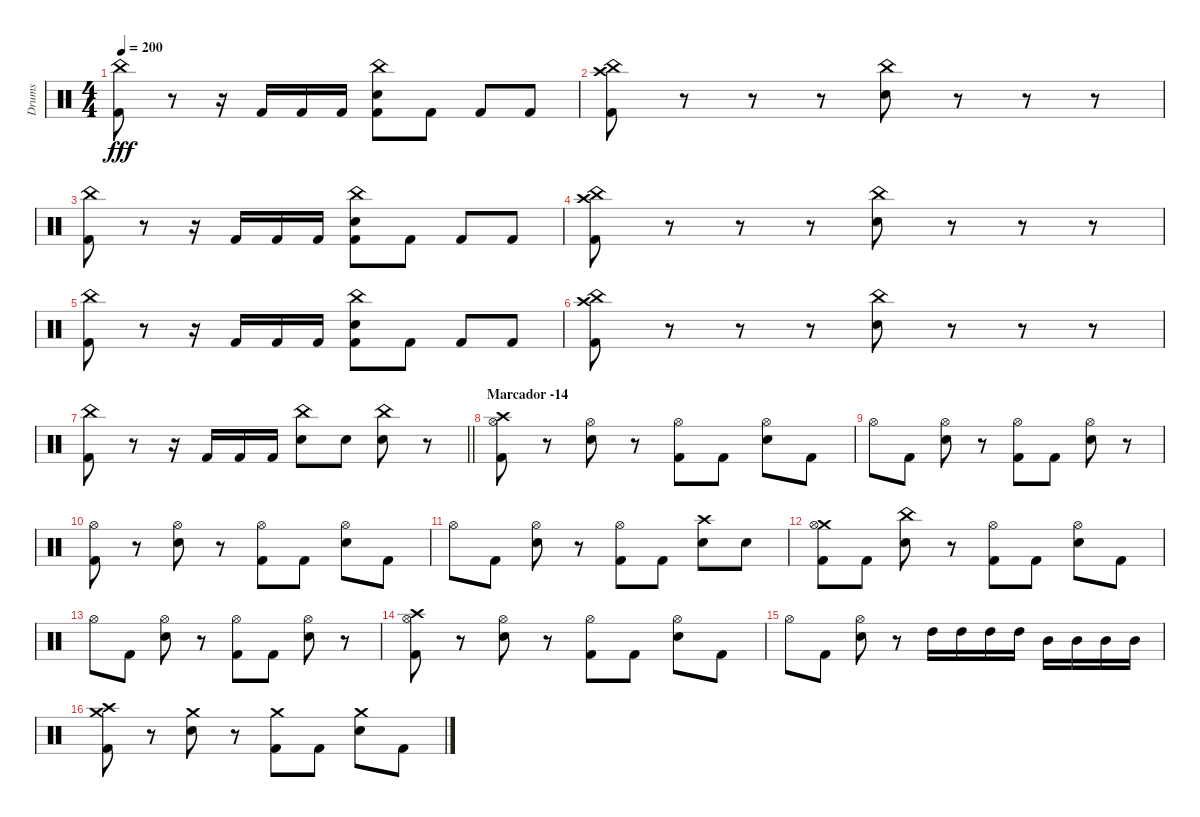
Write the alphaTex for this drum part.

\track ("Drums" "Drums") {instrument percussion}
\staff {score}
\articulation defaults
\ts (4 4)
\tempo 200
\clef neutral
\ks c
("China (hit)" "Kick (hit) 2").8{dy fff} r.8 r.16 "Kick (hit) 2".16 "Kick (hit) 2".16 "Kick (hit) 2".16 ("China (hit)" "Electric Snare (hit)" "Kick (hit) 2").8 "Kick (hit) 2".8 "Kick (hit) 2".8 "Kick (hit) 2".8 |
("China (hit)" "Crash high (hit)" "Kick (hit) 2").8 r.8 r.8 r.8 ("China (hit)" "Electric Snare (hit)").8 r.8 r.8 r.8 |
("China (hit)" "Kick (hit) 2").8 r.8 r.16 "Kick (hit) 2".16 "Kick (hit) 2".16 "Kick (hit) 2".16 ("China (hit)" "Electric Snare (hit)" "Kick (hit) 2").8 "Kick (hit) 2".8 "Kick (hit) 2".8 "Kick (hit) 2".8 |
("China (hit)" "Crash high (hit)" "Kick (hit) 2").8 r.8 r.8 r.8 ("China (hit)" "Electric Snare (hit)").8 r.8 r.8 r.8 |
("China (hit)" "Kick (hit) 2").8 r.8 r.16 "Kick (hit) 2".16 "Kick (hit) 2".16 "Kick (hit) 2".16 ("China (hit)" "Electric Snare (hit)" "Kick (hit) 2").8 "Kick (hit) 2".8 "Kick (hit) 2".8 "Kick (hit) 2".8 |
("China (hit)" "Crash high (hit)" "Kick (hit) 2").8 r.8 r.8 r.8 ("China (hit)" "Electric Snare (hit)").8 r.8 r.8 r.8 |
\barLineRight lightlight
("China (hit)" "Kick (hit) 2").8 r.8 r.16 "Kick (hit) 2".16 "Kick (hit) 2".16 "Kick (hit) 2".16 ("China (hit)" "Electric Snare (hit)").8 "Electric Snare (hit)".8 ("China (hit)" "Electric Snare (hit)").8 r.8 |
\section ("" "Marcador -14")
("Crash high (hit)" "Hi-Hat (open)" "Kick (hit) 2").8 r.8 ("Hi-Hat (open)" "Electric Snare (hit)").8 r.8 ("Hi-Hat (open)" "Kick (hit) 2").8 "Kick (hit) 2".8 ("Hi-Hat (open)" "Electric Snare (hit)").8 "Kick (hit) 2".8 |
"Hi-Hat (open)".8 "Kick (hit) 2".8 ("Hi-Hat (open)" "Electric Snare (hit)").8 r.8 ("Hi-Hat (open)" "Kick (hit) 2").8 "Kick (hit) 2".8 ("Hi-Hat (open)" "Electric Snare (hit)").8 r.8 |
("Hi-Hat (open)" "Kick (hit) 2").8 r.8 ("Hi-Hat (open)" "Electric Snare (hit)").8 r.8 ("Hi-Hat (open)" "Kick (hit) 2").8 "Kick (hit) 2".8 ("Hi-Hat (open)" "Electric Snare (hit)").8 "Kick (hit) 2".8 |
"Hi-Hat (open)".8 "Kick (hit) 2".8 ("Hi-Hat (open)" "Electric Snare (hit)").8 r.8 ("Hi-Hat (open)" "Kick (hit) 2").8 "Kick (hit) 2".8 ("Crash high (hit)" "Electric Snare (hit)").8 "Electric Snare (hit)".8 |
("Crash medium (hit)" "Hi-Hat (open)" "Kick (hit) 2").8 "Kick (hit) 2".8 ("China (hit)" "Electric Snare (hit)").8 r.8 ("Hi-Hat (open)" "Kick (hit) 2").8 "Kick (hit) 2".8 ("Hi-Hat (open)" "Electric Snare (hit)").8 "Kick (hit) 2".8 |
"Hi-Hat (open)".8 "Kick (hit) 2".8 ("Hi-Hat (open)" "Electric Snare (hit)").8 r.8 ("Hi-Hat (open)" "Kick (hit) 2").8 "Kick (hit) 2".8 ("Hi-Hat (open)" "Electric Snare (hit)").8 r.8 |
("Crash high (hit)" "Hi-Hat (open)" "Kick (hit) 2").8 r.8 ("Hi-Hat (open)" "Electric Snare (hit)").8 r.8 ("Hi-Hat (open)" "Kick (hit) 2").8 "Kick (hit) 2".8 ("Hi-Hat (open)" "Electric Snare (hit)").8 "Kick (hit) 2".8 |
"Hi-Hat (open)".8 "Kick (hit) 2".8 ("Hi-Hat (open)" "Electric Snare (hit)").8 r.8 "High Tom (hit)".16 "High Tom (hit)".16 "High Tom (hit)".16 "High Tom (hit)".16 "Mid Tom (hit)".16 "Mid Tom (hit)".16 "Mid Tom (hit)".16 "Mid Tom (hit)".16 |
("Crash medium (hit)" "Crash high (hit)" "Kick (hit) 2").8 r.8 ("Crash medium (hit)" "Electric Snare (hit)").8 r.8 ("Crash medium (hit)" "Kick (hit) 2").8 "Kick (hit) 2".8 ("Crash medium (hit)" "Electric Snare (hit)").8 "Kick (hit) 2".8
